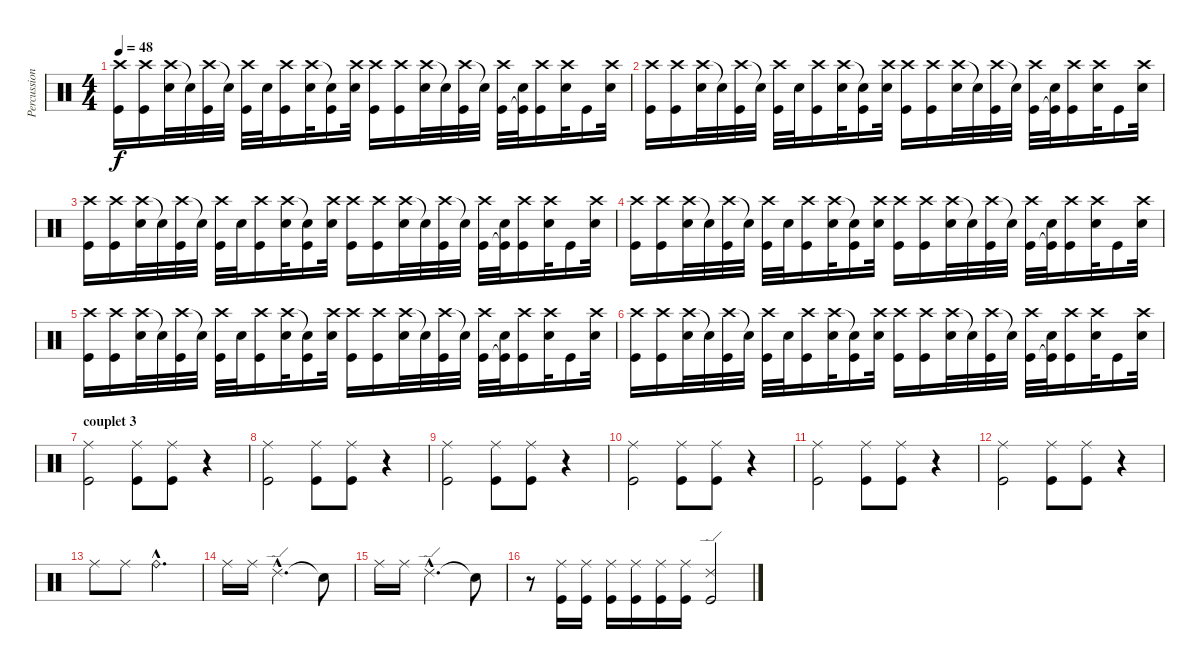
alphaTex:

\track ("Percussions" "Percussion") {instrument percussion}
\staff {score}
\articulation defaults
\ts (4 4)
\tempo 48
\clef neutral
\ks c
("Crash high (hit)" "Kick (hit)").16{dy f} ("Crash high (hit)" "Kick (hit)").16 ("Crash high (hit)" "Electric Snare (hit)").32 "Snare (hit)"{t}.32 ("Crash high (hit)" "Kick (hit)").32 "Snare (hit)"{t}.32 ("Crash high (hit)" "Kick (hit)").32 "Electric Snare (hit)".32 ("Crash high (hit)" "Kick (hit)").16 ("Crash high (hit)" "Electric Snare (hit)").32 ("Snare (hit)"{t} "Kick (hit)").16 ("Crash high (hit)" "Electric Snare (hit)").32 ("Crash high (hit)" "Kick (hit)").16 ("Crash high (hit)" "Kick (hit)").16 ("Crash high (hit)" "Electric Snare (hit)").32 "Snare (hit)"{t}.32 ("Crash high (hit)" "Kick (hit)").32 "Snare (hit)"{t}.32 ("Crash high (hit)" "Kick (hit)").32 ("Electric Snare (hit)" "Kick (hit)"{t}).32 ("Crash high (hit)" "Kick (hit)").16 ("Crash high (hit)" "Electric Snare (hit)").32 "Kick (hit)".16 ("Crash high (hit)" "Electric Snare (hit)").32 |
("Crash high (hit)" "Kick (hit)").16 ("Crash high (hit)" "Kick (hit)").16 ("Crash high (hit)" "Electric Snare (hit)").32 "Snare (hit)"{t}.32 ("Crash high (hit)" "Kick (hit)").32 "Snare (hit)"{t}.32 ("Crash high (hit)" "Kick (hit)").32 "Electric Snare (hit)".32 ("Crash high (hit)" "Kick (hit)").16 ("Crash high (hit)" "Electric Snare (hit)").32 ("Snare (hit)"{t} "Kick (hit)").16 ("Crash high (hit)" "Electric Snare (hit)").32 ("Crash high (hit)" "Kick (hit)").16 ("Crash high (hit)" "Kick (hit)").16 ("Crash high (hit)" "Electric Snare (hit)").32 "Snare (hit)"{t}.32 ("Crash high (hit)" "Kick (hit)").32 "Snare (hit)"{t}.32 ("Crash high (hit)" "Kick (hit)").32 ("Electric Snare (hit)" "Kick (hit)"{t}).32 ("Crash high (hit)" "Kick (hit)").16 ("Crash high (hit)" "Electric Snare (hit)").32 "Kick (hit)".16 ("Crash high (hit)" "Electric Snare (hit)").32 |
("Crash high (hit)" "Kick (hit)").16 ("Crash high (hit)" "Kick (hit)").16 ("Crash high (hit)" "Electric Snare (hit)").32 "Snare (hit)"{t}.32 ("Crash high (hit)" "Kick (hit)").32 "Snare (hit)"{t}.32 ("Crash high (hit)" "Kick (hit)").32 "Electric Snare (hit)".32 ("Crash high (hit)" "Kick (hit)").16 ("Crash high (hit)" "Electric Snare (hit)").32 ("Snare (hit)"{t} "Kick (hit)").16 ("Crash high (hit)" "Electric Snare (hit)").32 ("Crash high (hit)" "Kick (hit)").16 ("Crash high (hit)" "Kick (hit)").16 ("Crash high (hit)" "Electric Snare (hit)").32 "Snare (hit)"{t}.32 ("Crash high (hit)" "Kick (hit)").32 "Snare (hit)"{t}.32 ("Crash high (hit)" "Kick (hit)").32 ("Electric Snare (hit)" "Kick (hit)"{t}).32 ("Crash high (hit)" "Kick (hit)").16 ("Crash high (hit)" "Electric Snare (hit)").32 "Kick (hit)".16 ("Crash high (hit)" "Electric Snare (hit)").32 |
("Crash high (hit)" "Kick (hit)").16 ("Crash high (hit)" "Kick (hit)").16 ("Crash high (hit)" "Electric Snare (hit)").32 "Snare (hit)"{t}.32 ("Crash high (hit)" "Kick (hit)").32 "Snare (hit)"{t}.32 ("Crash high (hit)" "Kick (hit)").32 "Electric Snare (hit)".32 ("Crash high (hit)" "Kick (hit)").16 ("Crash high (hit)" "Electric Snare (hit)").32 ("Snare (hit)"{t} "Kick (hit)").16 ("Crash high (hit)" "Electric Snare (hit)").32 ("Crash high (hit)" "Kick (hit)").16 ("Crash high (hit)" "Kick (hit)").16 ("Crash high (hit)" "Electric Snare (hit)").32 "Snare (hit)"{t}.32 ("Crash high (hit)" "Kick (hit)").32 "Snare (hit)"{t}.32 ("Crash high (hit)" "Kick (hit)").32 ("Electric Snare (hit)" "Kick (hit)"{t}).32 ("Crash high (hit)" "Kick (hit)").16 ("Crash high (hit)" "Electric Snare (hit)").32 "Kick (hit)".16 ("Crash high (hit)" "Electric Snare (hit)").32 |
("Crash high (hit)" "Kick (hit)").16 ("Crash high (hit)" "Kick (hit)").16 ("Crash high (hit)" "Electric Snare (hit)").32 "Snare (hit)"{t}.32 ("Crash high (hit)" "Kick (hit)").32 "Snare (hit)"{t}.32 ("Crash high (hit)" "Kick (hit)").32 "Electric Snare (hit)".32 ("Crash high (hit)" "Kick (hit)").16 ("Crash high (hit)" "Electric Snare (hit)").32 ("Snare (hit)"{t} "Kick (hit)").16 ("Crash high (hit)" "Electric Snare (hit)").32 ("Crash high (hit)" "Kick (hit)").16 ("Crash high (hit)" "Kick (hit)").16 ("Crash high (hit)" "Electric Snare (hit)").32 "Snare (hit)"{t}.32 ("Crash high (hit)" "Kick (hit)").32 "Snare (hit)"{t}.32 ("Crash high (hit)" "Kick (hit)").32 ("Electric Snare (hit)" "Kick (hit)"{t}).32 ("Crash high (hit)" "Kick (hit)").16 ("Crash high (hit)" "Electric Snare (hit)").32 "Kick (hit)".16 ("Crash high (hit)" "Electric Snare (hit)").32 |
("Crash high (hit)" "Kick (hit)").16 ("Crash high (hit)" "Kick (hit)").16 ("Crash high (hit)" "Electric Snare (hit)").32 "Snare (hit)"{t}.32 ("Crash high (hit)" "Kick (hit)").32 "Snare (hit)"{t}.32 ("Crash high (hit)" "Kick (hit)").32 "Electric Snare (hit)".32 ("Crash high (hit)" "Kick (hit)").16 ("Crash high (hit)" "Electric Snare (hit)").32 ("Snare (hit)"{t} "Kick (hit)").16 ("Crash high (hit)" "Electric Snare (hit)").32 ("Crash high (hit)" "Kick (hit)").16 ("Crash high (hit)" "Kick (hit)").16 ("Crash high (hit)" "Electric Snare (hit)").32 "Snare (hit)"{t}.32 ("Crash high (hit)" "Kick (hit)").32 "Snare (hit)"{t}.32 ("Crash high (hit)" "Kick (hit)").32 ("Electric Snare (hit)" "Kick (hit)"{t}).32 ("Crash high (hit)" "Kick (hit)").16 ("Crash high (hit)" "Electric Snare (hit)").32 "Kick (hit)".16 ("Crash high (hit)" "Electric Snare (hit)").32 |
\section ("" "couplet 3")
("Ride (middle)" "Kick (hit)").2 ("Ride (middle)" "Kick (hit)").8 ("Ride (middle)" "Kick (hit)").8 r.4 |
("Ride (middle)" "Kick (hit)").2 ("Ride (middle)" "Kick (hit)").8 ("Ride (middle)" "Kick (hit)").8 r.4 |
("Ride (middle)" "Kick (hit)").2 ("Ride (middle)" "Kick (hit)").8 ("Ride (middle)" "Kick (hit)").8 r.4 |
("Ride (middle)" "Kick (hit)").2 ("Ride (middle)" "Kick (hit)").8 ("Ride (middle)" "Kick (hit)").8 r.4 |
("Ride (middle)" "Kick (hit)").2 ("Ride (middle)" "Kick (hit)").8 ("Ride (middle)" "Kick (hit)").8 r.4 |
("Ride (middle)" "Kick (hit)").2 ("Ride (middle)" "Kick (hit)").8 ("Ride (middle)" "Kick (hit)").8 r.4 |
"Ride (middle)".8 "Ride (middle)".8 "Ride (bell)"{hac}.2{d} |
"Ride (middle)".16 "Ride (middle)".16 "Ride (edge) 2"{hac}.2{d} "Snare (hit)"{t}.8 |
"Ride (middle)".16 "Ride (middle)".16 "Ride (edge) 2"{hac}.2{d} "Snare (hit)"{t}.8 |
r.8 ("Ride (middle)" "Kick (hit)").16 ("Ride (middle)" "Kick (hit)").16 ("Ride (middle)" "Kick (hit)").16 ("Ride (middle)" "Kick (hit)").16 ("Ride (middle)" "Kick (hit)").16 ("Ride (middle)" "Kick (hit)").16 ("Ride (edge) 2" "Kick (hit)").2
